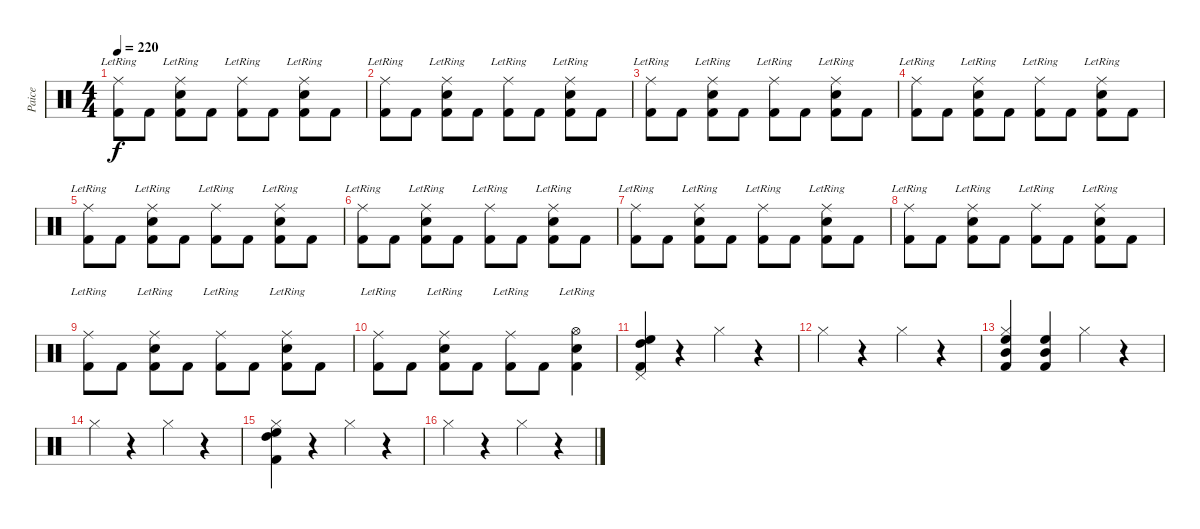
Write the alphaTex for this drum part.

\track ("Paice" "Paice") {instrument percussion}
\staff {score}
\articulation defaults
\ts (4 4)
\tempo 220
\clef neutral
\ks c
("Ride (middle)"{lr} "Kick (hit) 2").8{dy f} "Kick (hit) 2".8 ("Ride (middle)"{lr} "Snare (hit) 2" "Kick (hit) 2").8 "Kick (hit) 2".8 ("Ride (middle)"{lr} "Kick (hit) 2").8 "Kick (hit) 2".8 ("Ride (middle)"{lr} "Snare (hit) 2" "Kick (hit) 2").8 "Kick (hit) 2".8 |
("Ride (middle)"{lr} "Kick (hit) 2").8 "Kick (hit) 2".8 ("Ride (middle)"{lr} "Snare (hit) 2" "Kick (hit) 2").8 "Kick (hit) 2".8 ("Ride (middle)"{lr} "Kick (hit) 2").8 "Kick (hit) 2".8 ("Ride (middle)"{lr} "Snare (hit) 2" "Kick (hit) 2").8 "Kick (hit) 2".8 |
("Ride (middle)"{lr} "Kick (hit) 2").8 "Kick (hit) 2".8 ("Ride (middle)"{lr} "Snare (hit) 2" "Kick (hit) 2").8 "Kick (hit) 2".8 ("Ride (middle)"{lr} "Kick (hit) 2").8 "Kick (hit) 2".8 ("Ride (middle)"{lr} "Snare (hit) 2" "Kick (hit) 2").8 "Kick (hit) 2".8 |
("Ride (middle)"{lr} "Kick (hit) 2").8 "Kick (hit) 2".8 ("Ride (middle)"{lr} "Snare (hit) 2" "Kick (hit) 2").8 "Kick (hit) 2".8 ("Ride (middle)"{lr} "Kick (hit) 2").8 "Kick (hit) 2".8 ("Ride (middle)"{lr} "Snare (hit) 2" "Kick (hit) 2").8 "Kick (hit) 2".8 |
("Ride (middle)"{lr} "Kick (hit) 2").8 "Kick (hit) 2".8 ("Ride (middle)"{lr} "Snare (hit) 2" "Kick (hit) 2").8 "Kick (hit) 2".8 ("Ride (middle)"{lr} "Kick (hit) 2").8 "Kick (hit) 2".8 ("Ride (middle)"{lr} "Snare (hit) 2" "Kick (hit) 2").8 "Kick (hit) 2".8 |
("Ride (middle)"{lr} "Kick (hit) 2").8 "Kick (hit) 2".8 ("Ride (middle)"{lr} "Snare (hit) 2" "Kick (hit) 2").8 "Kick (hit) 2".8 ("Ride (middle)"{lr} "Kick (hit) 2").8 "Kick (hit) 2".8 ("Ride (middle)"{lr} "Snare (hit) 2" "Kick (hit) 2").8 "Kick (hit) 2".8 |
("Ride (middle)"{lr} "Kick (hit) 2").8 "Kick (hit) 2".8 ("Ride (middle)"{lr} "Snare (hit) 2" "Kick (hit) 2").8 "Kick (hit) 2".8 ("Ride (middle)"{lr} "Kick (hit) 2").8 "Kick (hit) 2".8 ("Ride (middle)"{lr} "Snare (hit) 2" "Kick (hit) 2").8 "Kick (hit) 2".8 |
("Ride (middle)"{lr} "Kick (hit) 2").8 "Kick (hit) 2".8 ("Ride (middle)"{lr} "Snare (hit) 2" "Kick (hit) 2").8 "Kick (hit) 2".8 ("Ride (middle)"{lr} "Kick (hit) 2").8 "Kick (hit) 2".8 ("Ride (middle)"{lr} "Snare (hit) 2" "Kick (hit) 2").8 "Kick (hit) 2".8 |
("Ride (middle)"{lr} "Kick (hit) 2").8 "Kick (hit) 2".8 ("Ride (middle)"{lr} "Snare (hit) 2" "Kick (hit) 2").8 "Kick (hit) 2".8 ("Ride (middle)"{lr} "Kick (hit) 2").8 "Kick (hit) 2".8 ("Ride (middle)"{lr} "Snare (hit) 2" "Kick (hit) 2").8 "Kick (hit) 2".8 |
("Ride (middle)"{lr} "Kick (hit) 2").8 "Kick (hit) 2".8 ("Ride (middle)"{lr} "Snare (hit) 2" "Kick (hit) 2").8 "Kick (hit) 2".8 ("Ride (middle)"{lr} "Kick (hit) 2").8 "Kick (hit) 2".8 ("Hi-Hat (open)"{lr} "Snare (hit) 2" "Kick (hit) 2").4 |
("Pedal Hi-Hat (hit)" "High Floor Tom (hit)" "High Tom (hit)" "Kick (hit) 2").4 r.4 "Hi-Hat (closed)".4 r.4 |
"Hi-Hat (closed)".4 r.4 "Hi-Hat (closed)".4 r.4 |
("Hi-Hat (closed)" "High Floor Tom (hit)" "Mid Tom (hit)" "Kick (hit) 2").4 ("High Floor Tom (hit)" "Mid Tom (hit)" "Kick (hit) 2").4 "Hi-Hat (closed)".4 r.4 |
"Hi-Hat (closed)".4 r.4 "Hi-Hat (closed)".4 r.4 |
("Hi-Hat (closed)" "High Floor Tom (hit)" "High Tom (hit)" "Kick (hit) 2").4 r.4 "Hi-Hat (closed)".4 r.4 |
"Hi-Hat (closed)".4 r.4 "Hi-Hat (closed)".4 r.4
